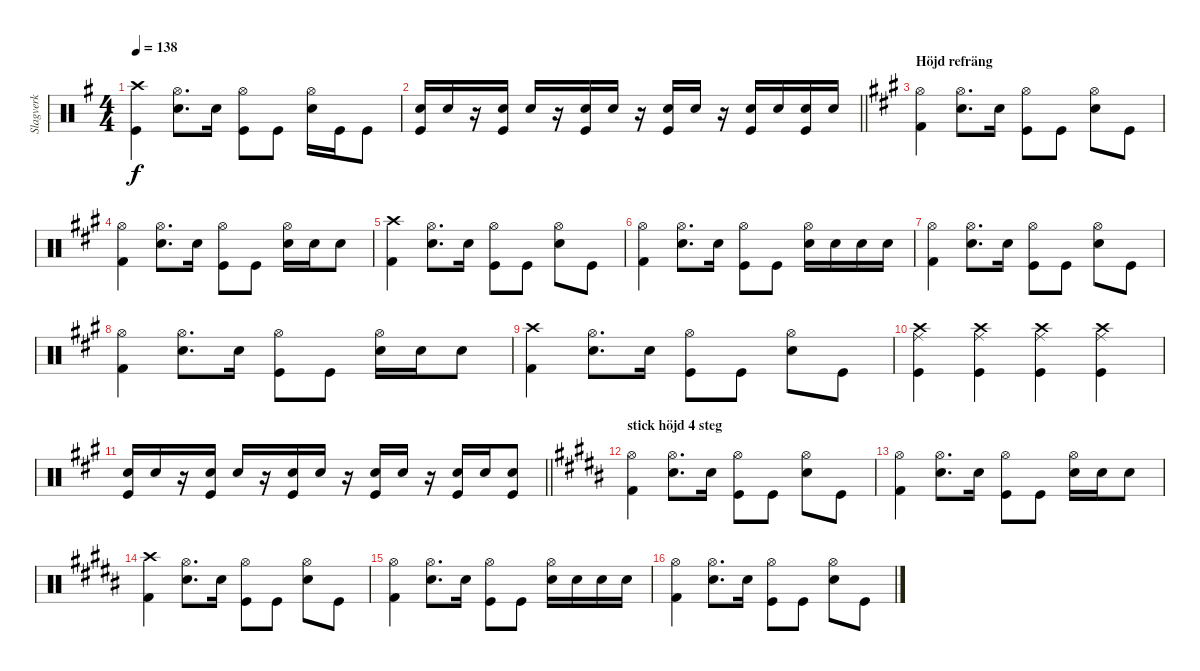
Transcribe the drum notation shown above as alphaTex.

\track ("Slagverk" "Slagverk") {instrument percussion}
\staff {score}
\articulation defaults
\ts (4 4)
\tempo 138
\clef neutral
\ks g
("Crash high (hit)" "Kick (hit)").4{dy f} ("Hi-Hat (open)" "Snare (hit) 2").8{d} "Snare (hit) 2".16 ("Hi-Hat (open)" "Kick (hit)").8 "Kick (hit)".8 ("Hi-Hat (open)" "Snare (hit) 2").16 "Kick (hit)".16 "Kick (hit)".8 |
\barLineRight lightlight
("Snare (hit) 2" "Kick (hit)").16 "Snare (hit) 2".16 r.16 ("Snare (hit) 2" "Kick (hit)").16 "Snare (hit) 2".16 r.16 ("Snare (hit) 2" "Kick (hit)").16 "Snare (hit) 2".16 r.16 ("Snare (hit) 2" "Kick (hit)").16 "Snare (hit) 2".16 r.16 ("Snare (hit) 2" "Kick (hit)").16 "Snare (hit) 2".16 ("Snare (hit) 2" "Kick (hit)").16 "Snare (hit) 2".16 |
\section ("" "Höjd refräng")
\ks a
("Hi-Hat (open)" "Kick (hit) 2").4 ("Hi-Hat (open)" "Snare (hit) 2").8{d} "Snare (hit) 2".16 ("Hi-Hat (open)" "Kick (hit)").8 "Kick (hit)".8 ("Hi-Hat (open)" "Snare (hit) 2").8 "Kick (hit)".8 |
("Hi-Hat (open)" "Kick (hit) 2").4 ("Hi-Hat (open)" "Snare (hit) 2").8{d} "Snare (hit) 2".16 ("Hi-Hat (open)" "Kick (hit)").8 "Kick (hit)".8 ("Hi-Hat (open)" "Snare (hit) 2").16 "Snare (hit) 2".16 "Snare (hit) 2".8 |
("Crash high (hit)" "Kick (hit) 2").4 ("Hi-Hat (open)" "Snare (hit) 2").8{d} "Snare (hit) 2".16 ("Hi-Hat (open)" "Kick (hit)").8 "Kick (hit)".8 ("Hi-Hat (open)" "Snare (hit) 2").8 "Kick (hit)".8 |
("Hi-Hat (open)" "Kick (hit) 2").4 ("Hi-Hat (open)" "Snare (hit) 2").8{d} "Snare (hit) 2".16 ("Hi-Hat (open)" "Kick (hit)").8 "Kick (hit)".8 ("Hi-Hat (open)" "Snare (hit) 2").16 "Snare (hit) 2".16 "Snare (hit) 2".16 "Snare (hit) 2".16 |
("Hi-Hat (open)" "Kick (hit) 2").4 ("Hi-Hat (open)" "Snare (hit) 2").8{d} "Snare (hit) 2".16 ("Hi-Hat (open)" "Kick (hit)").8 "Kick (hit)".8 ("Hi-Hat (open)" "Snare (hit) 2").8 "Kick (hit)".8 |
("Hi-Hat (open)" "Kick (hit) 2").4 ("Hi-Hat (open)" "Snare (hit) 2").8{d} "Snare (hit) 2".16 ("Hi-Hat (open)" "Kick (hit)").8 "Kick (hit)".8 ("Hi-Hat (open)" "Snare (hit) 2").16 "Snare (hit) 2".16 "Snare (hit) 2".8 |
("Crash high (hit)" "Kick (hit) 2").4 ("Hi-Hat (open)" "Snare (hit) 2").8{d} "Snare (hit) 2".16 ("Hi-Hat (open)" "Kick (hit)").8 "Kick (hit)".8 ("Hi-Hat (open)" "Snare (hit) 2").8 "Kick (hit)".8 |
("Crash high (hit)" "Ride (middle)" "Kick (hit)").4 ("Crash high (hit)" "Ride (middle)" "Kick (hit)").4 ("Crash high (hit)" "Ride (middle)" "Kick (hit)").4 ("Crash high (hit)" "Ride (middle)" "Kick (hit)").4 |
\barLineRight lightlight
("Snare (hit) 2" "Kick (hit)").16 "Snare (hit) 2".16 r.16 ("Snare (hit) 2" "Kick (hit)").16 "Snare (hit) 2".16 r.16 ("Snare (hit) 2" "Kick (hit)").16 "Snare (hit) 2".16 r.16 ("Snare (hit) 2" "Kick (hit)").16 "Snare (hit) 2".16 r.16 ("Snare (hit) 2" "Kick (hit)").16 "Snare (hit) 2".16 ("Snare (hit) 2" "Kick (hit)").8 |
\section ("" "stick höjd 4 steg")
\ks b
("Hi-Hat (open)" "Kick (hit) 2").4 ("Hi-Hat (open)" "Snare (hit) 2").8{d} "Snare (hit) 2".16 ("Hi-Hat (open)" "Kick (hit)").8 "Kick (hit)".8 ("Hi-Hat (open)" "Snare (hit) 2").8 "Kick (hit)".8 |
("Hi-Hat (open)" "Kick (hit) 2").4 ("Hi-Hat (open)" "Snare (hit) 2").8{d} "Snare (hit) 2".16 ("Hi-Hat (open)" "Kick (hit)").8 "Kick (hit)".8 ("Hi-Hat (open)" "Snare (hit) 2").16 "Snare (hit) 2".16 "Snare (hit) 2".8 |
("Crash high (hit)" "Kick (hit) 2").4 ("Hi-Hat (open)" "Snare (hit) 2").8{d} "Snare (hit) 2".16 ("Hi-Hat (open)" "Kick (hit)").8 "Kick (hit)".8 ("Hi-Hat (open)" "Snare (hit) 2").8 "Kick (hit)".8 |
("Hi-Hat (open)" "Kick (hit) 2").4 ("Hi-Hat (open)" "Snare (hit) 2").8{d} "Snare (hit) 2".16 ("Hi-Hat (open)" "Kick (hit)").8 "Kick (hit)".8 ("Hi-Hat (open)" "Snare (hit) 2").16 "Snare (hit) 2".16 "Snare (hit) 2".16 "Snare (hit) 2".16 |
("Hi-Hat (open)" "Kick (hit) 2").4 ("Hi-Hat (open)" "Snare (hit) 2").8{d} "Snare (hit) 2".16 ("Hi-Hat (open)" "Kick (hit)").8 "Kick (hit)".8 ("Hi-Hat (open)" "Snare (hit) 2").8 "Kick (hit)".8
